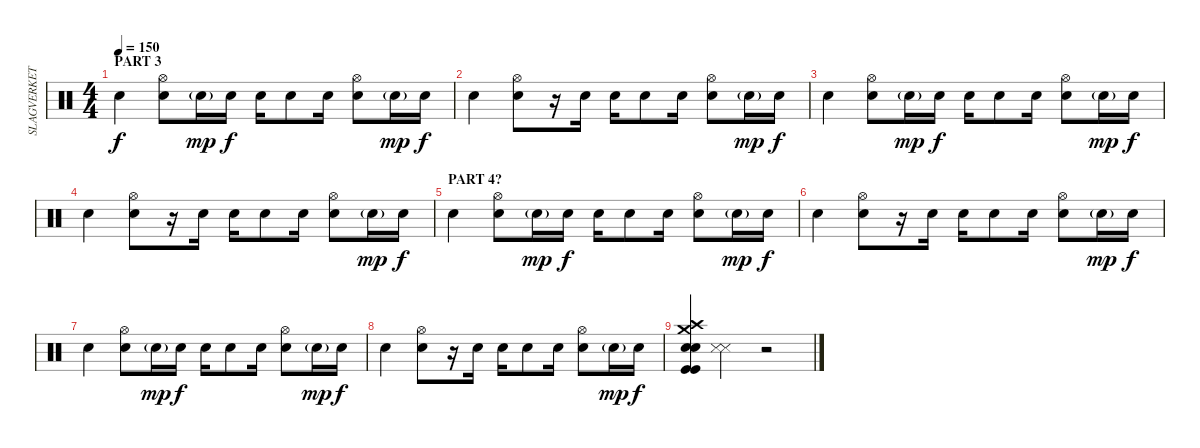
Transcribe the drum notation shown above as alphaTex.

\track ("SLAGVERKET" "SLAGVERKET") {instrument percussion}
\staff {score}
\articulation defaults
\ts (4 4)
\section ("" "PART 3")
\tempo 150
\clef neutral
\ks c "Electric Snare (hit)".4{dy f}
("Hi-Hat (open)" "Snare (hit) 2").8 "Snare (hit) 2"{g}.16{dy mp} "Snare (hit) 2".16{dy f} "Electric Snare (hit)".16 "Electric Snare (hit)".8 "Electric Snare (hit)".16 ("Electric Snare (hit)" "Hi-Hat (open)").8 "Electric Snare (hit)"{g}.16{dy mp} "Electric Snare (hit)".16{dy f} |
"Electric Snare (hit)".4 ("Hi-Hat (open)" "Snare (hit) 2").8 r.16 "Snare (hit) 2".16 "Electric Snare (hit)".16 "Electric Snare (hit)".8 "Electric Snare (hit)".16 ("Electric Snare (hit)" "Hi-Hat (open)").8 "Electric Snare (hit)"{g}.16{dy mp} "Electric Snare (hit)".16{dy f} |
"Electric Snare (hit)".4 ("Hi-Hat (open)" "Snare (hit) 2").8 "Snare (hit) 2"{g}.16{dy mp} "Snare (hit) 2".16{dy f} "Electric Snare (hit)".16 "Electric Snare (hit)".8 "Electric Snare (hit)".16 ("Electric Snare (hit)" "Hi-Hat (open)").8 "Electric Snare (hit)"{g}.16{dy mp} "Electric Snare (hit)".16{dy f} |
"Electric Snare (hit)".4 ("Hi-Hat (open)" "Snare (hit) 2").8 r.16 "Snare (hit) 2".16 "Electric Snare (hit)".16 "Electric Snare (hit)".8 "Electric Snare (hit)".16 ("Electric Snare (hit)" "Hi-Hat (open)").8 "Electric Snare (hit)"{g}.16{dy mp} "Electric Snare (hit)".16{dy f} |
\section ("" "PART 4?")
"Electric Snare (hit)".4 ("Hi-Hat (open)" "Snare (hit) 2").8 "Snare (hit) 2"{g}.16{dy mp} "Snare (hit) 2".16{dy f} "Electric Snare (hit)".16 "Electric Snare (hit)".8 "Electric Snare (hit)".16 ("Electric Snare (hit)" "Hi-Hat (open)").8 "Electric Snare (hit)"{g}.16{dy mp} "Electric Snare (hit)".16{dy f} |
"Electric Snare (hit)".4 ("Hi-Hat (open)" "Snare (hit) 2").8 r.16 "Snare (hit) 2".16 "Electric Snare (hit)".16 "Electric Snare (hit)".8 "Electric Snare (hit)".16 ("Electric Snare (hit)" "Hi-Hat (open)").8 "Electric Snare (hit)"{g}.16{dy mp} "Electric Snare (hit)".16{dy f} |
"Electric Snare (hit)".4 ("Hi-Hat (open)" "Snare (hit) 2").8 "Snare (hit) 2"{g}.16{dy mp} "Snare (hit) 2".16{dy f} "Electric Snare (hit)".16 "Electric Snare (hit)".8 "Electric Snare (hit)".16 ("Electric Snare (hit)" "Hi-Hat (open)").8 "Electric Snare (hit)"{g}.16{dy mp} "Electric Snare (hit)".16{dy f} |
"Electric Snare (hit)".4 ("Hi-Hat (open)" "Snare (hit) 2").8 r.16 "Snare (hit) 2".16 "Electric Snare (hit)".16 "Electric Snare (hit)".8 "Electric Snare (hit)".16 ("Electric Snare (hit)" "Hi-Hat (open)").8 "Electric Snare (hit)"{g}.16{dy mp} "Electric Snare (hit)".16{dy f} |
("Crash high (hit)" "Crash medium (hit)" "Electric Snare (hit)" "Snare (hit) 2" "Kick (hit)" "Kick (hit)").4 ("Metronome (hit)" "Metronome (hit)").4 r.2
